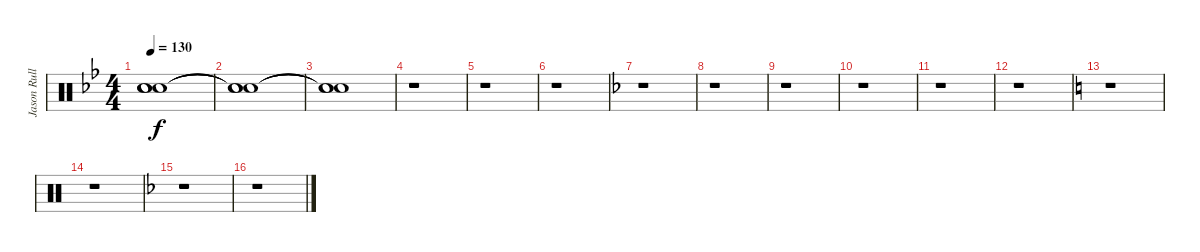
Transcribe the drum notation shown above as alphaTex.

\track ("Jason Rullo (drums)" "Jason Rull") {instrument percussion}
\staff {score}
\articulation defaults
\ts (4 4)
\tempo 130
\clef neutral
\ks gminor
("Snare (hit)"{t} "Snare (hit)"{t} "Snare (hit)"{t}).1{dy f} |
("Snare (hit)"{t} "Snare (hit)"{t} "Snare (hit)"{t}).1 |
("Snare (hit)"{t} "Snare (hit)"{t} "Snare (hit)"{t}).1 |
r.1 |
r.1 |
r.1 |
\ks dminor
r.1 |
r.1 |
r.1 |
r.1 |
r.1 |
r.1 |
\ks aminor
r.1 |
r.1 |
\ks dminor
r.1 |
r.1
